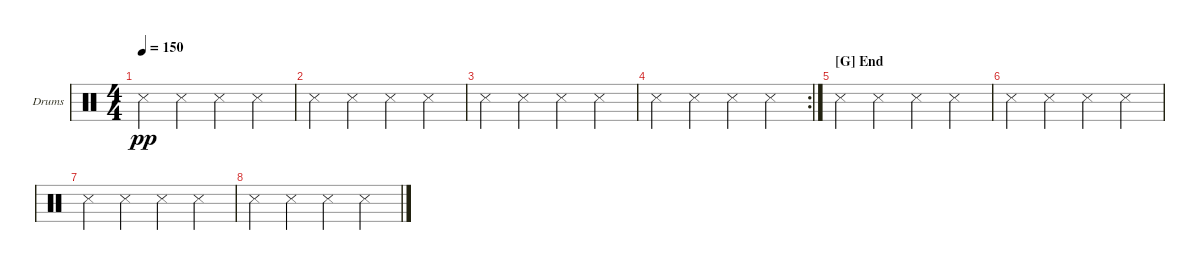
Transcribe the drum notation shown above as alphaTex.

\defaultSystemsLayout 4
\bracketExtendMode groupsimilarinstruments
\firstSystemTrackNameOrientation horizontal
\otherSystemsTrackNameOrientation horizontal
\track ("Drumkit" "Drums") {instrument percussion}
\staff {score}
\articulation defaults
\ts (4 4)
\tempo 150
\clef neutral
\scale
0.243478
\ks c "Snare (side stick) 3".4{dy pp} "Snare (side stick) 3".4 "Snare (side stick) 3".4 "Snare (side stick) 3".4
|
\scale
0.243478 "Snare (side stick) 3".4 "Snare (side stick) 3".4 "Snare (side stick) 3".4 "Snare (side stick) 3".4 |
\scale
0.243478 "Snare (side stick) 3".4 "Snare (side stick) 3".4 "Snare (side stick) 3".4 "Snare (side stick) 3".4 |
\rc 2
\scale
0.269565 "Snare (side stick) 3".4 "Snare (side stick) 3".4 "Snare (side stick) 3".4 "Snare (side stick) 3".4 |
\section ("G" "End")
"Snare (side stick) 3".4 "Snare (side stick) 3".4 "Snare (side stick) 3".4 "Snare (side stick) 3".4 |
"Snare (side stick) 3".4 "Snare (side stick) 3".4 "Snare (side stick) 3".4 "Snare (side stick) 3".4 |
"Snare (side stick) 3".4 "Snare (side stick) 3".4 "Snare (side stick) 3".4 "Snare (side stick) 3".4 |
"Snare (side stick) 3".4 "Snare (side stick) 3".4 "Snare (side stick) 3".4 "Snare (side stick) 3".4
